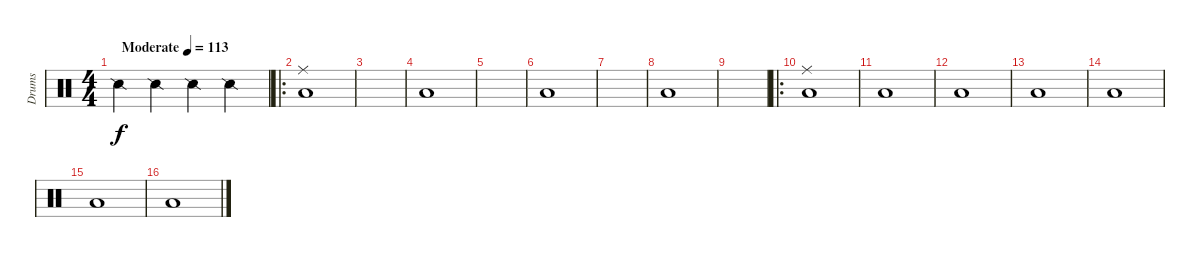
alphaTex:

\track ("Drums" "Drums") {instrument percussion}
\staff {score}
\articulation defaults
\ts (4 4)
\tempo (113 "Moderate")
\clef neutral
\ks c "Snare (side stick) 2".4{dy f} "Snare (side stick) 2".4 "Snare (side stick) 2".4 "Snare (side stick) 2".4
|
\ro
("Ride (middle)" "Low Floor Tom (hit)").1 |
|
"Low Floor Tom (hit)".1 |
|
"Low Floor Tom (hit)".1 |
|
"Low Floor Tom (hit)".1 |
|
\ro
("Ride (middle)" "Low Floor Tom (hit)").1 |
"Low Floor Tom (hit)".1 |
"Low Floor Tom (hit)".1 |
"Low Floor Tom (hit)".1 |
"Low Floor Tom (hit)".1 |
"Low Floor Tom (hit)".1 |
"Low Floor Tom (hit)".1
